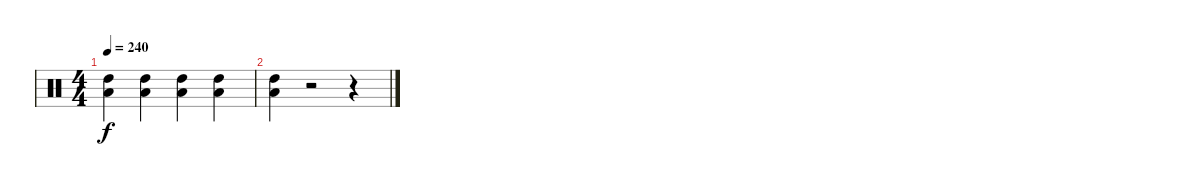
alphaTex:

\track "" {instrument percussion}
\staff {score}
\articulation defaults
\ts (4 4)
\tempo 240
\clef neutral
\ks c
("High Tom (hit)" "Low Floor Tom (hit)").4{dy f} ("High Tom (hit)" "Low Floor Tom (hit)").4 ("High Tom (hit)" "Low Floor Tom (hit)").4 ("High Tom (hit)" "Low Floor Tom (hit)").4 |
("High Tom (hit)" "Low Floor Tom (hit)").4 r.2 r.4
